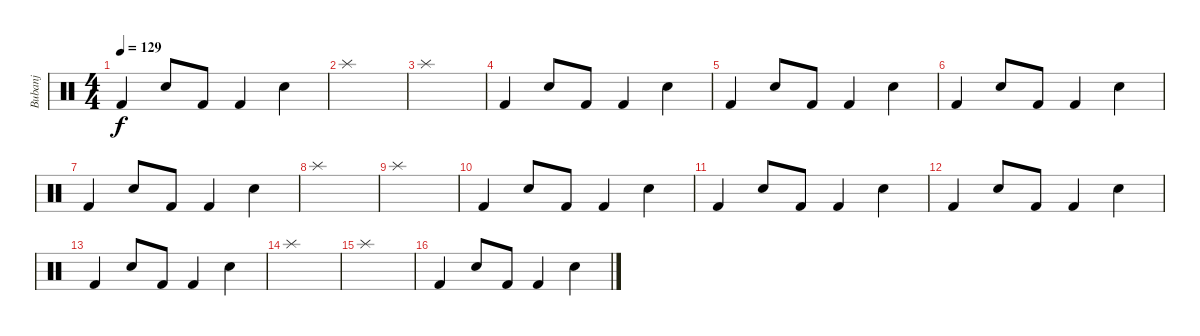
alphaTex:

\track ("Bubanj" "Bubanj") {instrument percussion}
\staff {score}
\articulation defaults
\ts (4 4)
\tempo 129
\clef neutral
\ks c "Kick (hit) 2".4{dy f} "Electric Snare (hit)".8 "Kick (hit) 2".8 "Kick (hit) 2".4 "Electric Snare (hit)".4
|
"Splash (hit)".1 |
"Splash (hit)".1 |
"Kick (hit) 2".4 "Electric Snare (hit)".8 "Kick (hit) 2".8 "Kick (hit) 2".4 "Electric Snare (hit)".4 |
"Kick (hit) 2".4 "Electric Snare (hit)".8 "Kick (hit) 2".8 "Kick (hit) 2".4 "Electric Snare (hit)".4 |
"Kick (hit) 2".4 "Electric Snare (hit)".8 "Kick (hit) 2".8 "Kick (hit) 2".4 "Electric Snare (hit)".4 |
"Kick (hit) 2".4 "Electric Snare (hit)".8 "Kick (hit) 2".8 "Kick (hit) 2".4 "Electric Snare (hit)".4 |
"Splash (hit)".1 |
"Splash (hit)".1 |
"Kick (hit) 2".4 "Electric Snare (hit)".8 "Kick (hit) 2".8 "Kick (hit) 2".4 "Electric Snare (hit)".4 |
"Kick (hit) 2".4 "Electric Snare (hit)".8 "Kick (hit) 2".8 "Kick (hit) 2".4 "Electric Snare (hit)".4 |
"Kick (hit) 2".4 "Electric Snare (hit)".8 "Kick (hit) 2".8 "Kick (hit) 2".4 "Electric Snare (hit)".4 |
"Kick (hit) 2".4 "Electric Snare (hit)".8 "Kick (hit) 2".8 "Kick (hit) 2".4 "Electric Snare (hit)".4 |
"Splash (hit)".1 |
"Splash (hit)".1 |
"Kick (hit) 2".4 "Electric Snare (hit)".8 "Kick (hit) 2".8 "Kick (hit) 2".4 "Electric Snare (hit)".4
